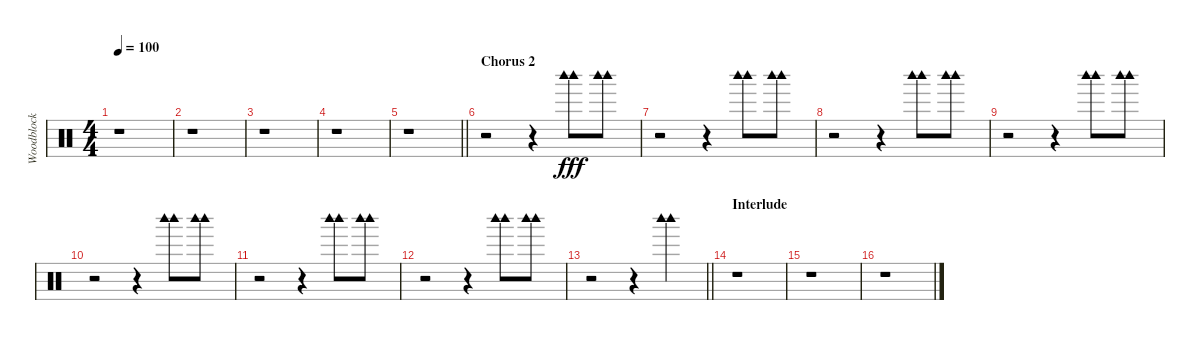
\track ("Woodblock" "Woodblock") {instrument percussion}
\staff {score}
\articulation defaults
\ts (4 4)
\tempo 100
\clef neutral
\ks c
r.1{dy fff} |
r.1 |
r.1 |
r.1 |
\barLineRight lightlight
r.1 |
\section ("" "Chorus 2")
r.2 r.4 ("Woodblock high (hit)" "Woodblock high (hit)").8 ("Woodblock high (hit)" "Woodblock high (hit)").8 |
r.2 r.4 ("Woodblock high (hit)" "Woodblock high (hit)").8 ("Woodblock high (hit)" "Woodblock high (hit)").8 |
r.2 r.4 ("Woodblock high (hit)" "Woodblock high (hit)").8 ("Woodblock high (hit)" "Woodblock high (hit)").8 |
r.2 r.4 ("Woodblock high (hit)" "Woodblock high (hit)").8 ("Woodblock high (hit)" "Woodblock high (hit)").8 |
r.2 r.4 ("Woodblock high (hit)" "Woodblock high (hit)").8 ("Woodblock high (hit)" "Woodblock high (hit)").8 |
r.2 r.4 ("Woodblock high (hit)" "Woodblock high (hit)").8 ("Woodblock high (hit)" "Woodblock high (hit)").8 |
r.2 r.4 ("Woodblock high (hit)" "Woodblock high (hit)").8 ("Woodblock high (hit)" "Woodblock high (hit)").8 |
\barLineRight lightlight
r.2 r.4 ("Woodblock high (hit)" "Woodblock high (hit)").4 |
\section ("" "Interlude")
r.1 |
r.1 |
r.1
